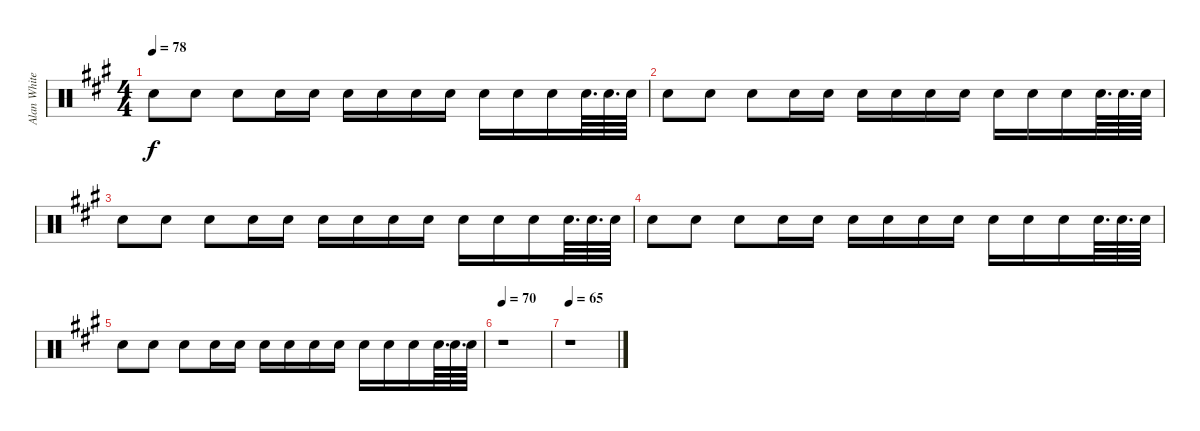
\track ("Alan White (Drums)" "Alan White") {instrument percussion}
\staff {score}
\articulation defaults
\ts (4 4)
\tempo 78
\clef neutral
\ks a "Snare (hit) 2".8{dy f} "Snare (hit) 2".8 "Snare (hit) 2".8 "Snare (hit) 2".16 "Snare (hit) 2".16 "Snare (hit) 2".16 "Snare (hit) 2".16 "Snare (hit) 2".16 "Snare (hit) 2".16 "Snare (hit) 2".16 "Snare (hit) 2".16 "Snare (hit) 2".16 "Snare (hit) 2".64{d} "Snare (hit) 2".64{d} "Snare (hit) 2".64
|
"Snare (hit) 2".8 "Snare (hit) 2".8 "Snare (hit) 2".8 "Snare (hit) 2".16 "Snare (hit) 2".16 "Snare (hit) 2".16 "Snare (hit) 2".16 "Snare (hit) 2".16 "Snare (hit) 2".16 "Snare (hit) 2".16 "Snare (hit) 2".16 "Snare (hit) 2".16 "Snare (hit) 2".64{d} "Snare (hit) 2".64{d} "Snare (hit) 2".64 |
"Snare (hit) 2".8 "Snare (hit) 2".8 "Snare (hit) 2".8 "Snare (hit) 2".16 "Snare (hit) 2".16 "Snare (hit) 2".16 "Snare (hit) 2".16 "Snare (hit) 2".16 "Snare (hit) 2".16 "Snare (hit) 2".16 "Snare (hit) 2".16 "Snare (hit) 2".16 "Snare (hit) 2".64{d} "Snare (hit) 2".64{d} "Snare (hit) 2".64 |
"Snare (hit) 2".8{volume 0} "Snare (hit) 2".8 "Snare (hit) 2".8 "Snare (hit) 2".16 "Snare (hit) 2".16 "Snare (hit) 2".16 "Snare (hit) 2".16 "Snare (hit) 2".16 "Snare (hit) 2".16 "Snare (hit) 2".16 "Snare (hit) 2".16 "Snare (hit) 2".16 "Snare (hit) 2".64{d} "Snare (hit) 2".64{d} "Snare (hit) 2".64 |
"Snare (hit) 2".8 "Snare (hit) 2".8 "Snare (hit) 2".8 "Snare (hit) 2".16 "Snare (hit) 2".16 "Snare (hit) 2".16 "Snare (hit) 2".16 "Snare (hit) 2".16 "Snare (hit) 2".16 "Snare (hit) 2".16 "Snare (hit) 2".16 "Snare (hit) 2".16 "Snare (hit) 2".64{d} "Snare (hit) 2".64{d} "Snare (hit) 2".64 |
\tempo 70
r.1 |
\tempo 65
r.1
